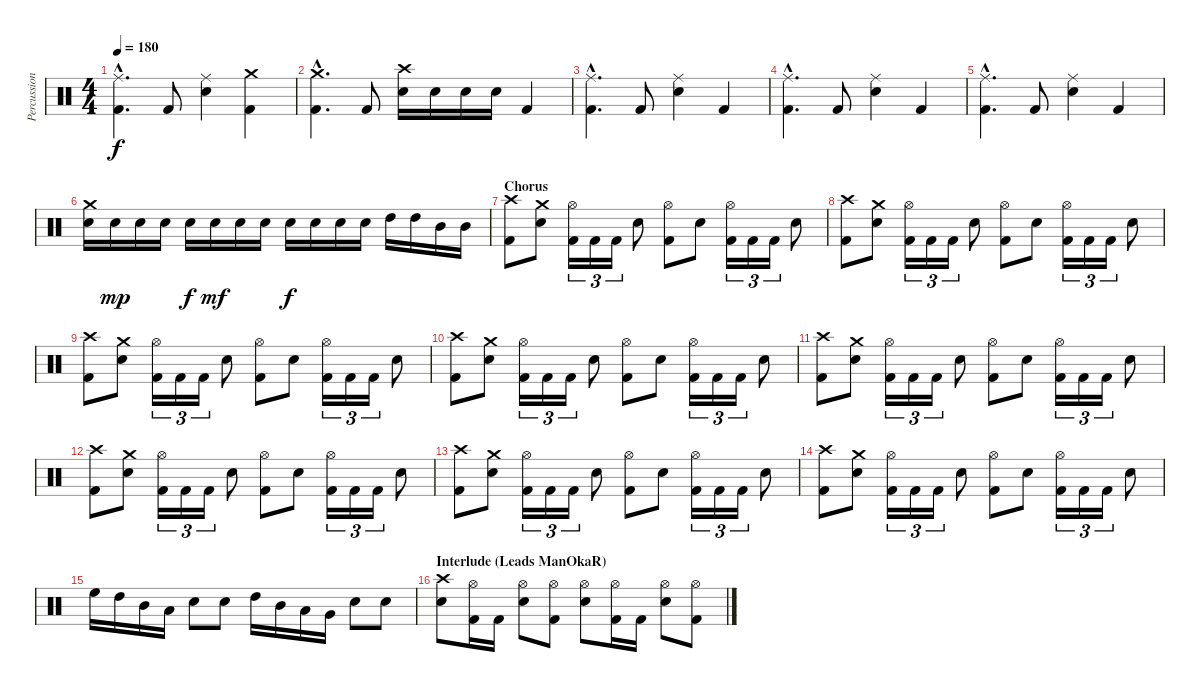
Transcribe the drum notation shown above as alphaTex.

\track ("Percussion" "Percussion") {instrument percussion}
\staff {score}
\articulation defaults
\ts (4 4)
\tempo 180
\clef neutral
\ks c
("Ride (middle)"{hac} "Kick (hit) 2"{hac}).4{d dy f} "Kick (hit) 2".8 ("Ride (middle)" "Snare (hit) 2").4 ("Crash medium (hit)" "Kick (hit) 2").4 |
("Crash medium (hit)"{hac} "Kick (hit) 2"{hac}).4{d} "Kick (hit) 2".8 ("Crash high (hit)" "Snare (hit) 2").16 "Snare (hit) 2".16 "Snare (hit) 2".16 "Snare (hit) 2".16 "Kick (hit) 2".4 |
("Ride (middle)"{hac} "Kick (hit) 2"{hac}).4{d} "Kick (hit) 2".8 ("Ride (middle)" "Snare (hit) 2").4 "Kick (hit) 2".4 |
("Ride (middle)"{hac} "Kick (hit) 2"{hac}).4{d} "Kick (hit) 2".8 ("Ride (middle)" "Snare (hit) 2").4 "Kick (hit) 2".4 |
("Ride (middle)"{hac} "Kick (hit) 2"{hac}).4{d} "Kick (hit) 2".8 ("Ride (middle)" "Snare (hit) 2").4 "Kick (hit) 2".4 |
("Crash medium (hit)" "Snare (hit) 2").16 "Snare (hit) 2".16{dy mp} "Snare (hit) 2".16 "Snare (hit) 2".16 "Snare (hit) 2".16{dy f} "Snare (hit) 2".16{dy mf} "Snare (hit) 2".16 "Snare (hit) 2".16 "Snare (hit) 2".16{dy f} "Snare (hit) 2".16 "Snare (hit) 2".16 "Snare (hit) 2".16 "High Tom (hit)".16 "High Tom (hit)".16 "Mid Tom (hit)".16 "Mid Tom (hit)".16 |
\section ("" "Chorus")
("Crash high (hit)" "Kick (hit) 2").8 ("Crash medium (hit)" "Snare (hit) 2").8 ("Hi-Hat (open)" "Kick (hit) 2").16{tu (3 2)} "Kick (hit) 2".16{tu (3 2)} "Kick (hit) 2".16{tu (3 2)} "Snare (hit) 2".8 ("Hi-Hat (open)" "Kick (hit) 2").8 "Snare (hit) 2".8 ("Hi-Hat (open)" "Kick (hit) 2").16{tu (3 2)} "Kick (hit) 2".16{tu (3 2)} "Kick (hit) 2".16{tu (3 2)} "Snare (hit) 2".8 |
("Crash high (hit)" "Kick (hit) 2").8 ("Crash medium (hit)" "Snare (hit) 2").8 ("Hi-Hat (open)" "Kick (hit) 2").16{tu (3 2)} "Kick (hit) 2".16{tu (3 2)} "Kick (hit) 2".16{tu (3 2)} "Snare (hit) 2".8 ("Hi-Hat (open)" "Kick (hit) 2").8 "Snare (hit) 2".8 ("Hi-Hat (open)" "Kick (hit) 2").16{tu (3 2)} "Kick (hit) 2".16{tu (3 2)} "Kick (hit) 2".16{tu (3 2)} "Snare (hit) 2".8 |
("Crash high (hit)" "Kick (hit) 2").8 ("Crash medium (hit)" "Snare (hit) 2").8 ("Hi-Hat (open)" "Kick (hit) 2").16{tu (3 2)} "Kick (hit) 2".16{tu (3 2)} "Kick (hit) 2".16{tu (3 2)} "Snare (hit) 2".8 ("Hi-Hat (open)" "Kick (hit) 2").8 "Snare (hit) 2".8 ("Hi-Hat (open)" "Kick (hit) 2").16{tu (3 2)} "Kick (hit) 2".16{tu (3 2)} "Kick (hit) 2".16{tu (3 2)} "Snare (hit) 2".8 |
("Crash high (hit)" "Kick (hit) 2").8 ("Crash medium (hit)" "Snare (hit) 2").8 ("Hi-Hat (open)" "Kick (hit) 2").16{tu (3 2)} "Kick (hit) 2".16{tu (3 2)} "Kick (hit) 2".16{tu (3 2)} "Snare (hit) 2".8 ("Hi-Hat (open)" "Kick (hit) 2").8 "Snare (hit) 2".8 ("Hi-Hat (open)" "Kick (hit) 2").16{tu (3 2)} "Kick (hit) 2".16{tu (3 2)} "Kick (hit) 2".16{tu (3 2)} "Snare (hit) 2".8 |
("Crash high (hit)" "Kick (hit) 2").8 ("Crash medium (hit)" "Snare (hit) 2").8 ("Hi-Hat (open)" "Kick (hit) 2").16{tu (3 2)} "Kick (hit) 2".16{tu (3 2)} "Kick (hit) 2".16{tu (3 2)} "Snare (hit) 2".8 ("Hi-Hat (open)" "Kick (hit) 2").8 "Snare (hit) 2".8 ("Hi-Hat (open)" "Kick (hit) 2").16{tu (3 2)} "Kick (hit) 2".16{tu (3 2)} "Kick (hit) 2".16{tu (3 2)} "Snare (hit) 2".8 |
("Crash high (hit)" "Kick (hit) 2").8 ("Crash medium (hit)" "Snare (hit) 2").8 ("Hi-Hat (open)" "Kick (hit) 2").16{tu (3 2)} "Kick (hit) 2".16{tu (3 2)} "Kick (hit) 2".16{tu (3 2)} "Snare (hit) 2".8 ("Hi-Hat (open)" "Kick (hit) 2").8 "Snare (hit) 2".8 ("Hi-Hat (open)" "Kick (hit) 2").16{tu (3 2)} "Kick (hit) 2".16{tu (3 2)} "Kick (hit) 2".16{tu (3 2)} "Snare (hit) 2".8 |
("Crash high (hit)" "Kick (hit) 2").8 ("Crash medium (hit)" "Snare (hit) 2").8 ("Hi-Hat (open)" "Kick (hit) 2").16{tu (3 2)} "Kick (hit) 2".16{tu (3 2)} "Kick (hit) 2".16{tu (3 2)} "Snare (hit) 2".8 ("Hi-Hat (open)" "Kick (hit) 2").8 "Snare (hit) 2".8 ("Hi-Hat (open)" "Kick (hit) 2").16{tu (3 2)} "Kick (hit) 2".16{tu (3 2)} "Kick (hit) 2".16{tu (3 2)} "Snare (hit) 2".8 |
("Crash high (hit)" "Kick (hit) 2").8 ("Crash medium (hit)" "Snare (hit) 2").8 ("Hi-Hat (open)" "Kick (hit) 2").16{tu (3 2)} "Kick (hit) 2".16{tu (3 2)} "Kick (hit) 2".16{tu (3 2)} "Snare (hit) 2".8 ("Hi-Hat (open)" "Kick (hit) 2").8 "Snare (hit) 2".8 ("Hi-Hat (open)" "Kick (hit) 2").16{tu (3 2)} "Kick (hit) 2".16{tu (3 2)} "Kick (hit) 2".16{tu (3 2)} "Snare (hit) 2".8 |
"High Floor Tom (hit)".16 "High Tom (hit)".16 "Mid Tom (hit)".16 "Low Tom (hit)".16 "Snare (hit) 2".8 "Snare (hit) 2".8 "High Tom (hit)".16 "Mid Tom (hit)".16 "Low Tom (hit)".16 "Very Low Tom (hit)".16 "Snare (hit) 2".8 "Snare (hit) 2".8 |
\section ("" "Interlude (Leads ManOkaR)")
("Crash high (hit)" "Snare (hit) 2").8 ("Hi-Hat (open)" "Kick (hit) 2").16 "Kick (hit) 2".16 ("Hi-Hat (open)" "Snare (hit) 2").8 ("Hi-Hat (open)" "Kick (hit) 2").8 ("Hi-Hat (open)" "Snare (hit) 2").8 ("Hi-Hat (open)" "Kick (hit) 2").16 "Kick (hit) 2".16 ("Hi-Hat (open)" "Snare (hit) 2").8 ("Hi-Hat (open)" "Kick (hit) 2").8
